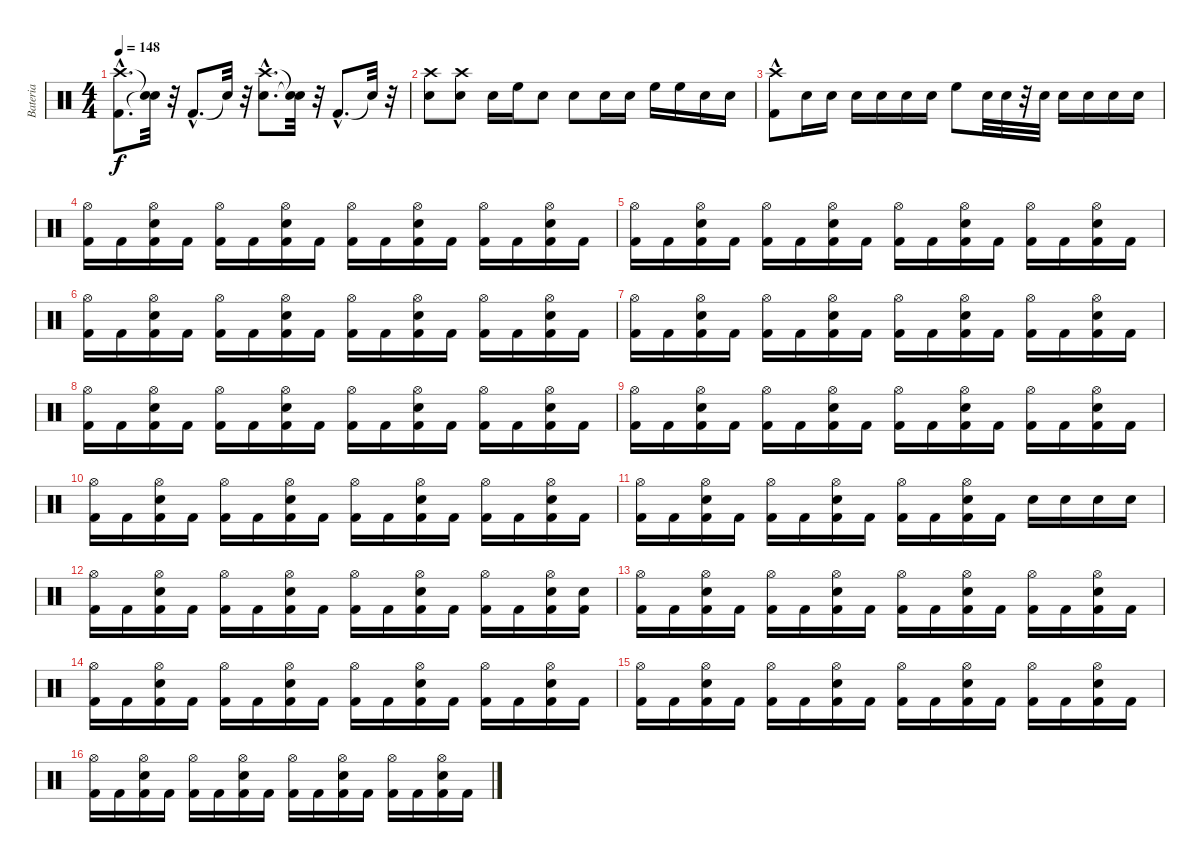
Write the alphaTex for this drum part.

\track ("Bateria" "Bateria") {instrument percussion}
\staff {score}
\articulation defaults
\ts (4 4)
\tempo 148
\clef neutral
\ks c
("Kick (hit) 2"{hac} "Crash high (hit)"{hac}).8{d dy f} ("Snare (hit)"{t} "Snare (hit)"{t}).32 r.32 "Kick (hit) 2"{hac}.8{d} "Snare (hit)"{t}.32 r.32 ("Snare (hit) 2"{hac} "Crash high (hit)"{hac}).8{d} ("Snare (hit)"{t} "Snare (hit)"{t}).32 r.32 "Kick (hit) 2"{hac}.8{d} "Snare (hit)"{t}.32 r.32 |
("Snare (hit) 2" "Crash high (hit)").8 ("Snare (hit) 2" "Crash high (hit)").8 "Snare (hit) 2".16 "High Floor Tom (hit)".16 "Snare (hit) 2".8 "Snare (hit) 2".8 "Snare (hit) 2".16 "Snare (hit) 2".16 "High Floor Tom (hit)".16 "High Floor Tom (hit)".16 "Snare (hit) 2".16 "Snare (hit) 2".16 |
("Kick (hit) 2"{hac} "Crash high (hit)").8 "Snare (hit) 2".16 "Snare (hit) 2".16 "Snare (hit) 2".16 "Snare (hit) 2".16 "Snare (hit) 2".16 "Snare (hit) 2".16 "High Floor Tom (hit)".8 "Snare (hit) 2".32 "Snare (hit) 2".32 r.32 "Snare (hit) 2".32 "Snare (hit) 2".16 "Snare (hit) 2".16 "Snare (hit) 2".16 "Snare (hit) 2".16 |
("Kick (hit) 2" "Hi-Hat (open)").16 "Kick (hit) 2".16 ("Kick (hit) 2" "Snare (hit) 2" "Hi-Hat (open)").16 "Kick (hit) 2".16 ("Kick (hit) 2" "Hi-Hat (open)").16 "Kick (hit) 2".16 ("Kick (hit) 2" "Snare (hit) 2" "Hi-Hat (open)").16 "Kick (hit) 2".16 ("Kick (hit) 2" "Hi-Hat (open)").16 "Kick (hit) 2".16 ("Kick (hit) 2" "Snare (hit) 2" "Hi-Hat (open)").16 "Kick (hit) 2".16 ("Kick (hit) 2" "Hi-Hat (open)").16 "Kick (hit) 2".16 ("Kick (hit) 2" "Snare (hit) 2" "Hi-Hat (open)").16 "Kick (hit) 2".16 |
("Kick (hit) 2" "Hi-Hat (open)").16 "Kick (hit) 2".16 ("Kick (hit) 2" "Snare (hit) 2" "Hi-Hat (open)").16 "Kick (hit) 2".16 ("Kick (hit) 2" "Hi-Hat (open)").16 "Kick (hit) 2".16 ("Kick (hit) 2" "Snare (hit) 2" "Hi-Hat (open)").16 "Kick (hit) 2".16 ("Kick (hit) 2" "Hi-Hat (open)").16 "Kick (hit) 2".16 ("Kick (hit) 2" "Snare (hit) 2" "Hi-Hat (open)").16 "Kick (hit) 2".16 ("Kick (hit) 2" "Hi-Hat (open)").16 "Kick (hit) 2".16 ("Kick (hit) 2" "Snare (hit) 2" "Hi-Hat (open)").16 "Kick (hit) 2".16 |
("Kick (hit) 2" "Hi-Hat (open)").16 "Kick (hit) 2".16 ("Kick (hit) 2" "Snare (hit) 2" "Hi-Hat (open)").16 "Kick (hit) 2".16 ("Kick (hit) 2" "Hi-Hat (open)").16 "Kick (hit) 2".16 ("Kick (hit) 2" "Snare (hit) 2" "Hi-Hat (open)").16 "Kick (hit) 2".16 ("Kick (hit) 2" "Hi-Hat (open)").16 "Kick (hit) 2".16 ("Kick (hit) 2" "Snare (hit) 2" "Hi-Hat (open)").16 "Kick (hit) 2".16 ("Kick (hit) 2" "Hi-Hat (open)").16 "Kick (hit) 2".16 ("Kick (hit) 2" "Snare (hit) 2" "Hi-Hat (open)").16 "Kick (hit) 2".16 |
("Kick (hit) 2" "Hi-Hat (open)").16 "Kick (hit) 2".16 ("Kick (hit) 2" "Snare (hit) 2" "Hi-Hat (open)").16 "Kick (hit) 2".16 ("Kick (hit) 2" "Hi-Hat (open)").16 "Kick (hit) 2".16 ("Kick (hit) 2" "Snare (hit) 2" "Hi-Hat (open)").16 "Kick (hit) 2".16 ("Kick (hit) 2" "Hi-Hat (open)").16 "Kick (hit) 2".16 ("Kick (hit) 2" "Snare (hit) 2" "Hi-Hat (open)").16 "Kick (hit) 2".16 ("Kick (hit) 2" "Hi-Hat (open)").16 "Kick (hit) 2".16 ("Kick (hit) 2" "Snare (hit) 2" "Hi-Hat (open)").16 "Kick (hit) 2".16 |
("Kick (hit) 2" "Hi-Hat (open)").16 "Kick (hit) 2".16 ("Kick (hit) 2" "Snare (hit) 2" "Hi-Hat (open)").16 "Kick (hit) 2".16 ("Kick (hit) 2" "Hi-Hat (open)").16 "Kick (hit) 2".16 ("Kick (hit) 2" "Snare (hit) 2" "Hi-Hat (open)").16 "Kick (hit) 2".16 ("Kick (hit) 2" "Hi-Hat (open)").16 "Kick (hit) 2".16 ("Kick (hit) 2" "Snare (hit) 2" "Hi-Hat (open)").16 "Kick (hit) 2".16 ("Kick (hit) 2" "Hi-Hat (open)").16 "Kick (hit) 2".16 ("Kick (hit) 2" "Snare (hit) 2" "Hi-Hat (open)").16 "Kick (hit) 2".16 |
("Kick (hit) 2" "Hi-Hat (open)").16 "Kick (hit) 2".16 ("Kick (hit) 2" "Snare (hit) 2" "Hi-Hat (open)").16 "Kick (hit) 2".16 ("Kick (hit) 2" "Hi-Hat (open)").16 "Kick (hit) 2".16 ("Kick (hit) 2" "Snare (hit) 2" "Hi-Hat (open)").16 "Kick (hit) 2".16 ("Kick (hit) 2" "Hi-Hat (open)").16 "Kick (hit) 2".16 ("Kick (hit) 2" "Snare (hit) 2" "Hi-Hat (open)").16 "Kick (hit) 2".16 ("Kick (hit) 2" "Hi-Hat (open)").16 "Kick (hit) 2".16 ("Kick (hit) 2" "Snare (hit) 2" "Hi-Hat (open)").16 "Kick (hit) 2".16 |
("Kick (hit) 2" "Hi-Hat (open)").16 "Kick (hit) 2".16 ("Kick (hit) 2" "Snare (hit) 2" "Hi-Hat (open)").16 "Kick (hit) 2".16 ("Kick (hit) 2" "Hi-Hat (open)").16 "Kick (hit) 2".16 ("Kick (hit) 2" "Snare (hit) 2" "Hi-Hat (open)").16 "Kick (hit) 2".16 ("Kick (hit) 2" "Hi-Hat (open)").16 "Kick (hit) 2".16 ("Kick (hit) 2" "Snare (hit) 2" "Hi-Hat (open)").16 "Kick (hit) 2".16 ("Kick (hit) 2" "Hi-Hat (open)").16 "Kick (hit) 2".16 ("Kick (hit) 2" "Snare (hit) 2" "Hi-Hat (open)").16 "Kick (hit) 2".16 |
("Kick (hit) 2" "Hi-Hat (open)").16 "Kick (hit) 2".16 ("Kick (hit) 2" "Snare (hit) 2" "Hi-Hat (open)").16 "Kick (hit) 2".16 ("Kick (hit) 2" "Hi-Hat (open)").16 "Kick (hit) 2".16 ("Kick (hit) 2" "Snare (hit) 2" "Hi-Hat (open)").16 "Kick (hit) 2".16 ("Kick (hit) 2" "Hi-Hat (open)").16 "Kick (hit) 2".16 ("Kick (hit) 2" "Snare (hit) 2" "Hi-Hat (open)").16 "Kick (hit) 2".16 "Snare (hit) 2".16 "Snare (hit) 2".16 "Snare (hit) 2".16 "Snare (hit) 2".16 |
("Kick (hit) 2" "Hi-Hat (open)").16 "Kick (hit) 2".16 ("Kick (hit) 2" "Snare (hit) 2" "Hi-Hat (open)").16 "Kick (hit) 2".16 ("Kick (hit) 2" "Hi-Hat (open)").16 "Kick (hit) 2".16 ("Kick (hit) 2" "Snare (hit) 2" "Hi-Hat (open)").16 "Kick (hit) 2".16 ("Kick (hit) 2" "Hi-Hat (open)").16 "Kick (hit) 2".16 ("Kick (hit) 2" "Snare (hit) 2" "Hi-Hat (open)").16 "Kick (hit) 2".16 ("Kick (hit) 2" "Hi-Hat (open)").16 "Kick (hit) 2".16 ("Kick (hit) 2" "Hi-Hat (open)" "Snare (hit) 2").16 ("Kick (hit) 2" "Snare (hit) 2").16 |
("Kick (hit) 2" "Hi-Hat (open)").16 "Kick (hit) 2".16 ("Kick (hit) 2" "Snare (hit) 2" "Hi-Hat (open)").16 "Kick (hit) 2".16 ("Kick (hit) 2" "Hi-Hat (open)").16 "Kick (hit) 2".16 ("Kick (hit) 2" "Snare (hit) 2" "Hi-Hat (open)").16 "Kick (hit) 2".16 ("Kick (hit) 2" "Hi-Hat (open)").16 "Kick (hit) 2".16 ("Kick (hit) 2" "Snare (hit) 2" "Hi-Hat (open)").16 "Kick (hit) 2".16 ("Kick (hit) 2" "Hi-Hat (open)").16 "Kick (hit) 2".16 ("Kick (hit) 2" "Snare (hit) 2" "Hi-Hat (open)").16 "Kick (hit) 2".16 |
("Kick (hit) 2" "Hi-Hat (open)").16 "Kick (hit) 2".16 ("Kick (hit) 2" "Snare (hit) 2" "Hi-Hat (open)").16 "Kick (hit) 2".16 ("Kick (hit) 2" "Hi-Hat (open)").16 "Kick (hit) 2".16 ("Kick (hit) 2" "Snare (hit) 2" "Hi-Hat (open)").16 "Kick (hit) 2".16 ("Kick (hit) 2" "Hi-Hat (open)").16 "Kick (hit) 2".16 ("Kick (hit) 2" "Snare (hit) 2" "Hi-Hat (open)").16 "Kick (hit) 2".16 ("Kick (hit) 2" "Hi-Hat (open)").16 "Kick (hit) 2".16 ("Kick (hit) 2" "Snare (hit) 2" "Hi-Hat (open)").16 "Kick (hit) 2".16 |
("Kick (hit) 2" "Hi-Hat (open)").16 "Kick (hit) 2".16 ("Kick (hit) 2" "Snare (hit) 2" "Hi-Hat (open)").16 "Kick (hit) 2".16 ("Kick (hit) 2" "Hi-Hat (open)").16 "Kick (hit) 2".16 ("Kick (hit) 2" "Snare (hit) 2" "Hi-Hat (open)").16 "Kick (hit) 2".16 ("Kick (hit) 2" "Hi-Hat (open)").16 "Kick (hit) 2".16 ("Kick (hit) 2" "Snare (hit) 2" "Hi-Hat (open)").16 "Kick (hit) 2".16 ("Kick (hit) 2" "Hi-Hat (open)").16 "Kick (hit) 2".16 ("Kick (hit) 2" "Snare (hit) 2" "Hi-Hat (open)").16 "Kick (hit) 2".16 |
("Kick (hit) 2" "Hi-Hat (open)").16 "Kick (hit) 2".16 ("Kick (hit) 2" "Snare (hit) 2" "Hi-Hat (open)").16 "Kick (hit) 2".16 ("Kick (hit) 2" "Hi-Hat (open)").16 "Kick (hit) 2".16 ("Kick (hit) 2" "Snare (hit) 2" "Hi-Hat (open)").16 "Kick (hit) 2".16 ("Kick (hit) 2" "Hi-Hat (open)").16 "Kick (hit) 2".16 ("Kick (hit) 2" "Snare (hit) 2" "Hi-Hat (open)").16 "Kick (hit) 2".16 ("Kick (hit) 2" "Hi-Hat (open)").16 "Kick (hit) 2".16 ("Kick (hit) 2" "Snare (hit) 2" "Hi-Hat (open)").16 "Kick (hit) 2".16
